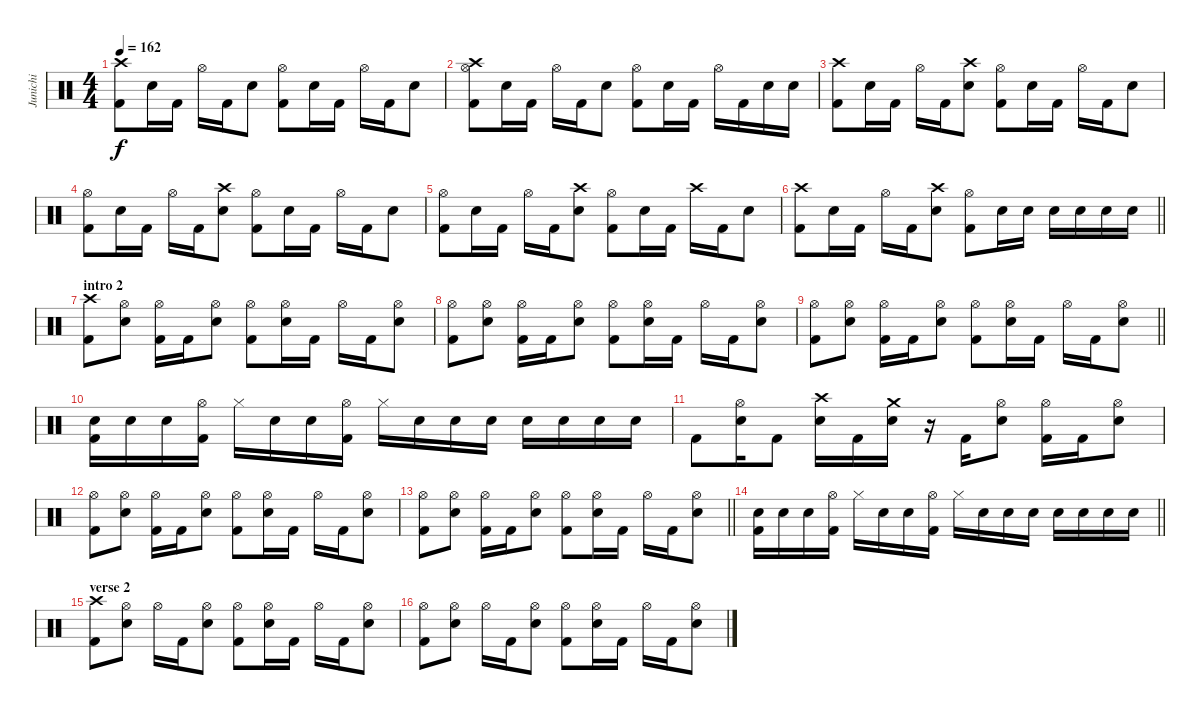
\track ("Junichi" "Junichi") {instrument percussion}
\staff {score}
\articulation defaults
\ts (4 4)
\tempo 162
\clef neutral
\ks c
("Crash high (hit)" "Kick (hit) 2").8{dy f} "Electric Snare (hit)".16 "Kick (hit) 2".16 "Hi-Hat (open)".16 "Kick (hit) 2".16 "Electric Snare (hit)".8 ("Hi-Hat (open)" "Kick (hit) 2").8 "Electric Snare (hit)".16 "Kick (hit) 2".16 "Hi-Hat (open)".16 "Kick (hit) 2".16 "Electric Snare (hit)".8 |
("Crash high (hit)" "Hi-Hat (open)" "Kick (hit) 2").8 "Electric Snare (hit)".16 "Kick (hit) 2".16 "Hi-Hat (open)".16 "Kick (hit) 2".16 "Electric Snare (hit)".8 ("Hi-Hat (open)" "Kick (hit) 2").8 "Electric Snare (hit)".16 "Kick (hit) 2".16 "Hi-Hat (open)".16 "Kick (hit) 2".16 "Electric Snare (hit)".16 "Electric Snare (hit)".16 |
("Crash high (hit)" "Kick (hit) 2").8 "Electric Snare (hit)".16 "Kick (hit) 2".16 "Hi-Hat (open)".16 "Kick (hit) 2".16 ("Crash high (hit)" "Electric Snare (hit)").8 ("Hi-Hat (open)" "Kick (hit) 2").8 "Electric Snare (hit)".16 "Kick (hit) 2".16 "Hi-Hat (open)".16 "Kick (hit) 2".16 "Electric Snare (hit)".8 |
("Hi-Hat (open)" "Kick (hit) 2").8 "Electric Snare (hit)".16 "Kick (hit) 2".16 "Hi-Hat (open)".16 "Kick (hit) 2".16 ("Crash high (hit)" "Electric Snare (hit)").8 ("Hi-Hat (open)" "Kick (hit) 2").8 "Electric Snare (hit)".16 "Kick (hit) 2".16 "Hi-Hat (open)".16 "Kick (hit) 2".16 "Electric Snare (hit)".8 |
("Hi-Hat (open)" "Kick (hit) 2").8 "Electric Snare (hit)".16 "Kick (hit) 2".16 "Hi-Hat (open)".16 "Kick (hit) 2".16 ("Crash high (hit)" "Electric Snare (hit)").8 ("Hi-Hat (open)" "Kick (hit) 2").8 "Electric Snare (hit)".16 "Kick (hit) 2".16 "Crash high (hit)".16 "Kick (hit) 2".16 "Electric Snare (hit)".8 |
\barLineRight lightlight
("Crash high (hit)" "Kick (hit) 2").8 "Electric Snare (hit)".16 "Kick (hit) 2".16 "Hi-Hat (open)".16 "Kick (hit) 2".16 ("Crash high (hit)" "Electric Snare (hit)").8 ("Hi-Hat (open)" "Kick (hit) 2").8 "Electric Snare (hit)".16 "Electric Snare (hit)".16 "Electric Snare (hit)".16 "Electric Snare (hit)".16 "Electric Snare (hit)".16 "Electric Snare (hit)".16 |
\section ("" "intro 2")
("Crash high (hit)" "Kick (hit) 2").8 ("Hi-Hat (open)" "Electric Snare (hit)").8 ("Hi-Hat (open)" "Kick (hit) 2").16 "Kick (hit) 2".16 ("Hi-Hat (open)" "Electric Snare (hit)").8 ("Hi-Hat (open)" "Kick (hit) 2").8 ("Hi-Hat (open)" "Electric Snare (hit)").16 "Kick (hit) 2".16 "Hi-Hat (open)".16 "Kick (hit) 2".16 ("Hi-Hat (open)" "Electric Snare (hit)").8 |
("Hi-Hat (open)" "Kick (hit) 2").8 ("Hi-Hat (open)" "Electric Snare (hit)").8 ("Hi-Hat (open)" "Kick (hit) 2").16 "Kick (hit) 2".16 ("Hi-Hat (open)" "Electric Snare (hit)").8 ("Hi-Hat (open)" "Kick (hit) 2").8 ("Hi-Hat (open)" "Electric Snare (hit)").16 "Kick (hit) 2".16 "Hi-Hat (open)".16 "Kick (hit) 2".16 ("Hi-Hat (open)" "Electric Snare (hit)").8 |
\barLineRight lightlight
("Hi-Hat (open)" "Kick (hit) 2").8 ("Hi-Hat (open)" "Electric Snare (hit)").8 ("Hi-Hat (open)" "Kick (hit) 2").16 "Kick (hit) 2".16 ("Hi-Hat (open)" "Electric Snare (hit)").8 ("Hi-Hat (open)" "Kick (hit) 2").8 ("Hi-Hat (open)" "Electric Snare (hit)").16 "Kick (hit) 2".16 "Hi-Hat (open)".16 "Kick (hit) 2".16 ("Hi-Hat (open)" "Electric Snare (hit)").8 |
("Electric Snare (hit)" "Kick (hit) 2").16 "Electric Snare (hit)".16 "Electric Snare (hit)".16 ("Hi-Hat (open)" "Kick (hit) 2").16 "Hi-Hat (closed)".16 "Electric Snare (hit)".16 "Electric Snare (hit)".16 ("Hi-Hat (open)" "Kick (hit) 2").16 "Hi-Hat (closed)".16 "Electric Snare (hit)".16 "Electric Snare (hit)".16 "Electric Snare (hit)".16 "Electric Snare (hit)".16 "Electric Snare (hit)".16 "Electric Snare (hit)".16 "Electric Snare (hit)".16 |
"Kick (hit) 2".8 ("Hi-Hat (open)" "Electric Snare (hit)").16 "Kick (hit) 2".8 ("Crash high (hit)" "Electric Snare (hit)").16 "Kick (hit) 2".16 ("Crash medium (hit)" "Electric Snare (hit)").16 r.16 "Kick (hit) 2".16 ("Hi-Hat (open)" "Electric Snare (hit)").8 ("Hi-Hat (open)" "Kick (hit) 2").16 "Kick (hit) 2".16 ("Hi-Hat (open)" "Electric Snare (hit)").8 |
("Hi-Hat (open)" "Kick (hit) 2").8 ("Hi-Hat (open)" "Electric Snare (hit)").8 ("Hi-Hat (open)" "Kick (hit) 2").16 "Kick (hit) 2".16 ("Hi-Hat (open)" "Electric Snare (hit)").8 ("Hi-Hat (open)" "Kick (hit) 2").8 ("Hi-Hat (open)" "Electric Snare (hit)").16 "Kick (hit) 2".16 "Hi-Hat (open)".16 "Kick (hit) 2".16 ("Hi-Hat (open)" "Electric Snare (hit)").8 |
\barLineRight lightlight
("Hi-Hat (open)" "Kick (hit) 2").8 ("Hi-Hat (open)" "Electric Snare (hit)").8 ("Hi-Hat (open)" "Kick (hit) 2").16 "Kick (hit) 2".16 ("Hi-Hat (open)" "Electric Snare (hit)").8 ("Hi-Hat (open)" "Kick (hit) 2").8 ("Hi-Hat (open)" "Electric Snare (hit)").16 "Kick (hit) 2".16 "Hi-Hat (open)".16 "Kick (hit) 2".16 ("Hi-Hat (open)" "Electric Snare (hit)").8 |
\barLineRight lightlight
("Electric Snare (hit)" "Kick (hit) 2").16 "Electric Snare (hit)".16 "Electric Snare (hit)".16 ("Hi-Hat (open)" "Kick (hit) 2").16 "Hi-Hat (closed)".16 "Electric Snare (hit)".16 "Electric Snare (hit)".16 ("Hi-Hat (open)" "Kick (hit) 2").16 "Hi-Hat (closed)".16 "Electric Snare (hit)".16 "Electric Snare (hit)".16 "Electric Snare (hit)".16 "Electric Snare (hit)".16 "Electric Snare (hit)".16 "Electric Snare (hit)".16 "Electric Snare (hit)".16 |
\section ("" "verse 2")
("Crash high (hit)" "Kick (hit) 2").8 ("Hi-Hat (open)" "Electric Snare (hit)").8 "Hi-Hat (open)".16 "Kick (hit) 2".16 ("Hi-Hat (open)" "Electric Snare (hit)").8 ("Hi-Hat (open)" "Kick (hit) 2").8 ("Hi-Hat (open)" "Electric Snare (hit)").16 "Kick (hit) 2".16 "Hi-Hat (open)".16 "Kick (hit) 2".16 ("Hi-Hat (open)" "Electric Snare (hit)").8 |
("Hi-Hat (open)" "Kick (hit) 2").8 ("Hi-Hat (open)" "Electric Snare (hit)").8 "Hi-Hat (open)".16 "Kick (hit) 2".16 ("Hi-Hat (open)" "Electric Snare (hit)").8 ("Hi-Hat (open)" "Kick (hit) 2").8 ("Hi-Hat (open)" "Electric Snare (hit)").16 "Kick (hit) 2".16 "Hi-Hat (open)".16 "Kick (hit) 2".16 ("Hi-Hat (open)" "Electric Snare (hit)").8
